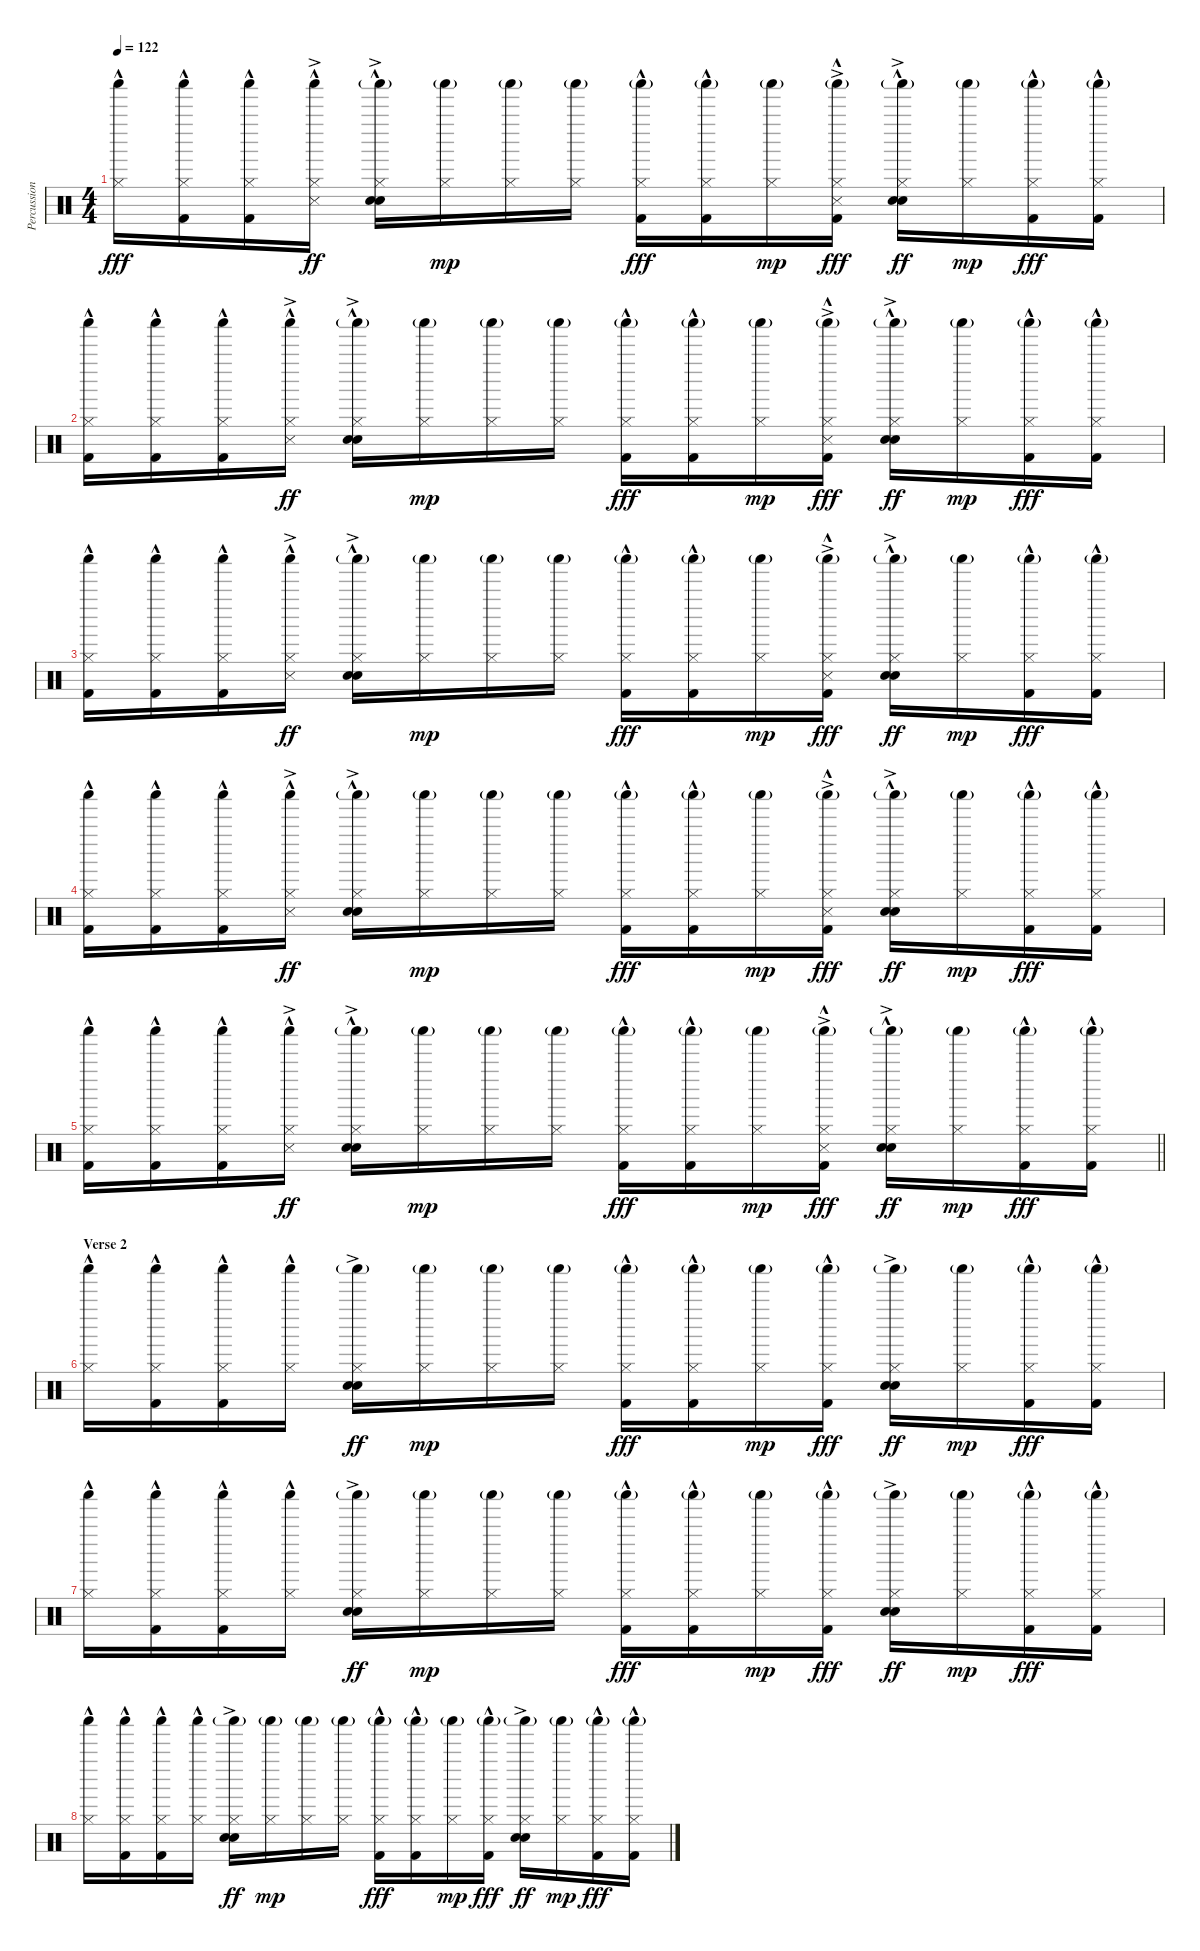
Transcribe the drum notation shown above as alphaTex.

\track ("Percussion" "Percussion") {instrument percussion}
\staff {score}
\articulation defaults
\ts (4 4)
\tempo 122
\clef neutral
\ks c
("Shaker (hit)" "Hi-Hat (closed)"{hac}).16{dy fff} ("Shaker (hit)" "Hi-Hat (closed)"{hac} "Kick (hit) 2"{hac}).16 ("Shaker (hit)" "Hi-Hat (closed)"{hac} "Kick (hit) 2"{hac}).16 ("Shaker (hit)" "Hi-Hat (closed)"{hac} "Snare (side stick) 3"{ac}).16{dy ff} ("Shaker (hit)"{g} "Hi-Hat (closed)" "Hand Clap (hit)"{hac} "Snare (hit) 2"{ac}).16 ("Shaker (hit)"{g} "Hi-Hat (closed)").16{dy mp} ("Shaker (hit)"{g} "Hi-Hat (closed)").16 ("Shaker (hit)"{g} "Hi-Hat (closed)").16 ("Shaker (hit)"{g} "Hi-Hat (closed)" "Kick (hit) 2"{hac}).16{dy fff} ("Shaker (hit)"{g} "Hi-Hat (closed)" "Kick (hit) 2"{hac}).16 ("Shaker (hit)"{g} "Hi-Hat (closed)").16{dy mp} ("Shaker (hit)"{g} "Hi-Hat (closed)" "Snare (side stick) 3"{ac} "Kick (hit) 2"{hac}).16{dy fff} ("Shaker (hit)"{g} "Hi-Hat (closed)" "Hand Clap (hit)"{hac} "Snare (hit) 2"{ac}).16{dy ff} ("Shaker (hit)"{g} "Hi-Hat (closed)").16{dy mp} ("Shaker (hit)"{g} "Hi-Hat (closed)" "Kick (hit) 2"{hac}).16{dy fff} ("Shaker (hit)"{g} "Hi-Hat (closed)" "Kick (hit) 2"{hac}).16 |
("Shaker (hit)" "Hi-Hat (closed)"{hac} "Kick (hit) 2").16 ("Shaker (hit)" "Hi-Hat (closed)"{hac} "Kick (hit) 2"{hac}).16 ("Shaker (hit)" "Hi-Hat (closed)"{hac} "Kick (hit) 2"{hac}).16 ("Shaker (hit)" "Hi-Hat (closed)"{hac} "Snare (side stick) 3"{ac}).16{dy ff} ("Shaker (hit)"{g} "Hi-Hat (closed)" "Hand Clap (hit)"{hac} "Snare (hit) 2"{ac}).16 ("Shaker (hit)"{g} "Hi-Hat (closed)").16{dy mp} ("Shaker (hit)"{g} "Hi-Hat (closed)").16 ("Shaker (hit)"{g} "Hi-Hat (closed)").16 ("Shaker (hit)"{g} "Hi-Hat (closed)" "Kick (hit) 2"{hac}).16{dy fff} ("Shaker (hit)"{g} "Hi-Hat (closed)" "Kick (hit) 2"{hac}).16 ("Shaker (hit)"{g} "Hi-Hat (closed)").16{dy mp} ("Shaker (hit)"{g} "Hi-Hat (closed)" "Snare (side stick) 3"{ac} "Kick (hit) 2"{hac}).16{dy fff} ("Shaker (hit)"{g} "Hi-Hat (closed)" "Hand Clap (hit)"{hac} "Snare (hit) 2"{ac}).16{dy ff} ("Shaker (hit)"{g} "Hi-Hat (closed)").16{dy mp} ("Shaker (hit)"{g} "Hi-Hat (closed)" "Kick (hit) 2"{hac}).16{dy fff} ("Shaker (hit)"{g} "Hi-Hat (closed)" "Kick (hit) 2"{hac}).16 |
("Shaker (hit)" "Hi-Hat (closed)"{hac} "Kick (hit) 2").16 ("Shaker (hit)" "Hi-Hat (closed)"{hac} "Kick (hit) 2"{hac}).16 ("Shaker (hit)" "Hi-Hat (closed)"{hac} "Kick (hit) 2"{hac}).16 ("Shaker (hit)" "Hi-Hat (closed)"{hac} "Snare (side stick) 3"{ac}).16{dy ff} ("Shaker (hit)"{g} "Hi-Hat (closed)" "Hand Clap (hit)"{hac} "Snare (hit) 2"{ac}).16 ("Shaker (hit)"{g} "Hi-Hat (closed)").16{dy mp} ("Shaker (hit)"{g} "Hi-Hat (closed)").16 ("Shaker (hit)"{g} "Hi-Hat (closed)").16 ("Shaker (hit)"{g} "Hi-Hat (closed)" "Kick (hit) 2"{hac}).16{dy fff} ("Shaker (hit)"{g} "Hi-Hat (closed)" "Kick (hit) 2"{hac}).16 ("Shaker (hit)"{g} "Hi-Hat (closed)").16{dy mp} ("Shaker (hit)"{g} "Hi-Hat (closed)" "Snare (side stick) 3"{ac} "Kick (hit) 2"{hac}).16{dy fff} ("Shaker (hit)"{g} "Hi-Hat (closed)" "Hand Clap (hit)"{hac} "Snare (hit) 2"{ac}).16{dy ff} ("Shaker (hit)"{g} "Hi-Hat (closed)").16{dy mp} ("Shaker (hit)"{g} "Hi-Hat (closed)" "Kick (hit) 2"{hac}).16{dy fff} ("Shaker (hit)"{g} "Hi-Hat (closed)" "Kick (hit) 2"{hac}).16 |
("Shaker (hit)" "Hi-Hat (closed)"{hac} "Kick (hit) 2").16 ("Shaker (hit)" "Hi-Hat (closed)"{hac} "Kick (hit) 2"{hac}).16 ("Shaker (hit)" "Hi-Hat (closed)"{hac} "Kick (hit) 2"{hac}).16 ("Shaker (hit)" "Hi-Hat (closed)"{hac} "Snare (side stick) 3"{ac}).16{dy ff} ("Shaker (hit)"{g} "Hi-Hat (closed)" "Hand Clap (hit)"{hac} "Snare (hit) 2"{ac}).16 ("Shaker (hit)"{g} "Hi-Hat (closed)").16{dy mp} ("Shaker (hit)"{g} "Hi-Hat (closed)").16 ("Shaker (hit)"{g} "Hi-Hat (closed)").16 ("Shaker (hit)"{g} "Hi-Hat (closed)" "Kick (hit) 2"{hac}).16{dy fff} ("Shaker (hit)"{g} "Hi-Hat (closed)" "Kick (hit) 2"{hac}).16 ("Shaker (hit)"{g} "Hi-Hat (closed)").16{dy mp} ("Shaker (hit)"{g} "Hi-Hat (closed)" "Snare (side stick) 3"{ac} "Kick (hit) 2"{hac}).16{dy fff} ("Shaker (hit)"{g} "Hi-Hat (closed)" "Hand Clap (hit)"{hac} "Snare (hit) 2"{ac}).16{dy ff} ("Shaker (hit)"{g} "Hi-Hat (closed)").16{dy mp} ("Shaker (hit)"{g} "Hi-Hat (closed)" "Kick (hit) 2"{hac}).16{dy fff} ("Shaker (hit)"{g} "Hi-Hat (closed)" "Kick (hit) 2"{hac}).16 |
\barLineRight lightlight
("Shaker (hit)" "Hi-Hat (closed)"{hac} "Kick (hit) 2").16 ("Shaker (hit)" "Hi-Hat (closed)"{hac} "Kick (hit) 2"{hac}).16 ("Shaker (hit)" "Hi-Hat (closed)"{hac} "Kick (hit) 2"{hac}).16 ("Shaker (hit)" "Hi-Hat (closed)"{hac} "Snare (side stick) 3"{ac}).16{dy ff} ("Shaker (hit)"{g} "Hi-Hat (closed)" "Hand Clap (hit)"{hac} "Snare (hit) 2"{ac}).16 ("Shaker (hit)"{g} "Hi-Hat (closed)").16{dy mp} ("Shaker (hit)"{g} "Hi-Hat (closed)").16 ("Shaker (hit)"{g} "Hi-Hat (closed)").16 ("Shaker (hit)"{g} "Hi-Hat (closed)" "Kick (hit) 2"{hac}).16{dy fff} ("Shaker (hit)"{g} "Hi-Hat (closed)" "Kick (hit) 2"{hac}).16 ("Shaker (hit)"{g} "Hi-Hat (closed)").16{dy mp} ("Shaker (hit)"{g} "Hi-Hat (closed)" "Snare (side stick) 3"{ac} "Kick (hit) 2"{hac}).16{dy fff} ("Shaker (hit)"{g} "Hi-Hat (closed)" "Hand Clap (hit)"{hac} "Snare (hit) 2"{ac}).16{dy ff} ("Shaker (hit)"{g} "Hi-Hat (closed)").16{dy mp} ("Shaker (hit)"{g} "Hi-Hat (closed)" "Kick (hit) 2"{hac}).16{dy fff} ("Shaker (hit)"{g} "Hi-Hat (closed)" "Kick (hit) 2"{hac}).16 |
\section ("" "Verse 2")
("Shaker (hit)" "Hi-Hat (closed)"{hac}).16 ("Shaker (hit)" "Hi-Hat (closed)"{hac} "Kick (hit) 2"{hac}).16 ("Shaker (hit)" "Hi-Hat (closed)"{hac} "Kick (hit) 2"{hac}).16 ("Shaker (hit)" "Hi-Hat (closed)"{hac}).16 ("Shaker (hit)"{g} "Hi-Hat (closed)" "Hand Clap (hit)" "Snare (hit) 2"{ac}).16{dy ff} ("Shaker (hit)"{g} "Hi-Hat (closed)").16{dy mp} ("Shaker (hit)"{g} "Hi-Hat (closed)").16 ("Shaker (hit)"{g} "Hi-Hat (closed)").16 ("Shaker (hit)"{g} "Hi-Hat (closed)" "Kick (hit) 2"{hac}).16{dy fff} ("Shaker (hit)"{g} "Hi-Hat (closed)" "Kick (hit) 2"{hac}).16 ("Shaker (hit)"{g} "Hi-Hat (closed)").16{dy mp} ("Shaker (hit)"{g} "Hi-Hat (closed)" "Kick (hit) 2"{hac}).16{dy fff} ("Shaker (hit)"{g} "Hi-Hat (closed)" "Hand Clap (hit)"{ac} "Snare (hit) 2"{ac}).16{dy ff} ("Shaker (hit)"{g} "Hi-Hat (closed)").16{dy mp} ("Shaker (hit)"{g} "Hi-Hat (closed)" "Kick (hit) 2"{hac}).16{dy fff} ("Shaker (hit)"{g} "Hi-Hat (closed)" "Kick (hit) 2"{hac}).16 |
("Shaker (hit)" "Hi-Hat (closed)"{hac}).16 ("Shaker (hit)" "Hi-Hat (closed)"{hac} "Kick (hit) 2"{hac}).16 ("Shaker (hit)" "Hi-Hat (closed)"{hac} "Kick (hit) 2"{hac}).16 ("Shaker (hit)" "Hi-Hat (closed)"{hac}).16 ("Shaker (hit)"{g} "Hi-Hat (closed)" "Hand Clap (hit)" "Snare (hit) 2"{ac}).16{dy ff} ("Shaker (hit)"{g} "Hi-Hat (closed)").16{dy mp} ("Shaker (hit)"{g} "Hi-Hat (closed)").16 ("Shaker (hit)"{g} "Hi-Hat (closed)").16 ("Shaker (hit)"{g} "Hi-Hat (closed)" "Kick (hit) 2"{hac}).16{dy fff} ("Shaker (hit)"{g} "Hi-Hat (closed)" "Kick (hit) 2"{hac}).16 ("Shaker (hit)"{g} "Hi-Hat (closed)").16{dy mp} ("Shaker (hit)"{g} "Hi-Hat (closed)" "Kick (hit) 2"{hac}).16{dy fff} ("Shaker (hit)"{g} "Hi-Hat (closed)" "Hand Clap (hit)"{ac} "Snare (hit) 2"{ac}).16{dy ff} ("Shaker (hit)"{g} "Hi-Hat (closed)").16{dy mp} ("Shaker (hit)"{g} "Hi-Hat (closed)" "Kick (hit) 2"{hac}).16{dy fff} ("Shaker (hit)"{g} "Hi-Hat (closed)" "Kick (hit) 2"{hac}).16 |
("Shaker (hit)" "Hi-Hat (closed)"{hac}).16 ("Shaker (hit)" "Hi-Hat (closed)"{hac} "Kick (hit) 2"{hac}).16 ("Shaker (hit)" "Hi-Hat (closed)"{hac} "Kick (hit) 2"{hac}).16 ("Shaker (hit)" "Hi-Hat (closed)"{hac}).16 ("Shaker (hit)"{g} "Hi-Hat (closed)" "Hand Clap (hit)" "Snare (hit) 2"{ac}).16{dy ff} ("Shaker (hit)"{g} "Hi-Hat (closed)").16{dy mp} ("Shaker (hit)"{g} "Hi-Hat (closed)").16 ("Shaker (hit)"{g} "Hi-Hat (closed)").16 ("Shaker (hit)"{g} "Hi-Hat (closed)" "Kick (hit) 2"{hac}).16{dy fff} ("Shaker (hit)"{g} "Hi-Hat (closed)" "Kick (hit) 2"{hac}).16 ("Shaker (hit)"{g} "Hi-Hat (closed)").16{dy mp} ("Shaker (hit)"{g} "Hi-Hat (closed)" "Kick (hit) 2"{hac}).16{dy fff} ("Shaker (hit)"{g} "Hi-Hat (closed)" "Hand Clap (hit)"{ac} "Snare (hit) 2"{ac}).16{dy ff} ("Shaker (hit)"{g} "Hi-Hat (closed)").16{dy mp} ("Shaker (hit)"{g} "Hi-Hat (closed)" "Kick (hit) 2"{hac}).16{dy fff} ("Shaker (hit)"{g} "Hi-Hat (closed)" "Kick (hit) 2"{hac}).16
